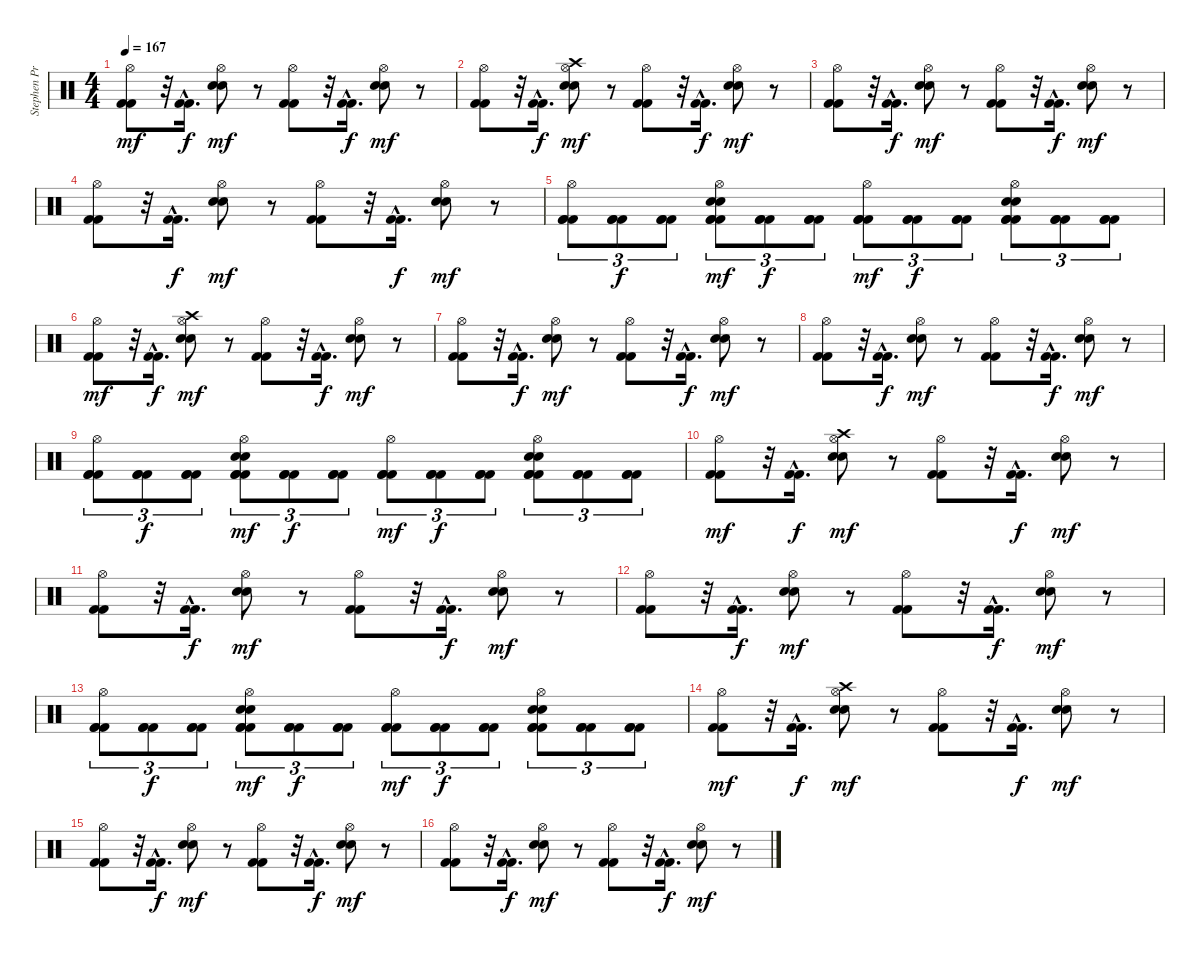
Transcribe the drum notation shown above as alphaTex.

\track ("Stephen Priestly  (Drums)" "Stephen Pr") {instrument percussion}
\staff {score}
\articulation defaults
\ts (4 4)
\tempo 167
\clef neutral
\ks c
("Hi-Hat (open)" "Kick (hit) 2" "Kick (hit) 2").8{dy mf} r.32 ("Kick (hit) 2"{hac} "Kick (hit) 2"{hac}).16{d dy f} ("Hi-Hat (open)" "Electric Snare (hit)" "Electric Snare (hit)").8{dy mf} r.8 ("Hi-Hat (open)" "Kick (hit) 2" "Kick (hit) 2").8 r.32 ("Kick (hit) 2"{hac} "Kick (hit) 2"{hac}).16{d dy f} ("Hi-Hat (open)" "Electric Snare (hit)" "Electric Snare (hit)").8{dy mf} r.8 |
("Hi-Hat (open)" "Kick (hit) 2" "Kick (hit) 2").8 r.32 ("Kick (hit) 2"{hac} "Kick (hit) 2"{hac}).16{d dy f} ("Crash high (hit)" "Hi-Hat (open)" "Electric Snare (hit)" "Electric Snare (hit)").8{dy mf} r.8 ("Hi-Hat (open)" "Kick (hit) 2" "Kick (hit) 2").8 r.32 ("Kick (hit) 2"{hac} "Kick (hit) 2"{hac}).16{d dy f} ("Hi-Hat (open)" "Electric Snare (hit)" "Electric Snare (hit)").8{dy mf} r.8 |
("Hi-Hat (open)" "Kick (hit) 2" "Kick (hit) 2").8 r.32 ("Kick (hit) 2"{hac} "Kick (hit) 2"{hac}).16{d dy f} ("Hi-Hat (open)" "Electric Snare (hit)" "Electric Snare (hit)").8{dy mf} r.8 ("Hi-Hat (open)" "Kick (hit) 2" "Kick (hit) 2").8 r.32 ("Kick (hit) 2"{hac} "Kick (hit) 2"{hac}).16{d dy f} ("Hi-Hat (open)" "Electric Snare (hit)" "Electric Snare (hit)").8{dy mf} r.8 |
("Hi-Hat (open)" "Kick (hit) 2" "Kick (hit) 2").8 r.32 ("Kick (hit) 2"{hac} "Kick (hit) 2"{hac}).16{d dy f} ("Hi-Hat (open)" "Electric Snare (hit)" "Electric Snare (hit)").8{dy mf} r.8 ("Hi-Hat (open)" "Kick (hit) 2" "Kick (hit) 2").8 r.32 ("Kick (hit) 2"{hac} "Kick (hit) 2"{hac}).16{d dy f} ("Hi-Hat (open)" "Electric Snare (hit)" "Electric Snare (hit)").8{dy mf} r.8 |
("Hi-Hat (open)" "Kick (hit) 2" "Kick (hit) 2" "Kick (hit) 2").8{tu (3 2)} ("Kick (hit) 2" "Kick (hit) 2" "Kick (hit) 2").8{tu (3 2) dy f} ("Kick (hit) 2" "Kick (hit) 2" "Kick (hit) 2").8{tu (3 2)} ("Electric Snare (hit)" "Hi-Hat (open)" "Electric Snare (hit)" "Kick (hit) 2" "Kick (hit) 2" "Kick (hit) 2").8{tu (3 2) dy mf} ("Kick (hit) 2" "Kick (hit) 2" "Kick (hit) 2").8{tu (3 2) dy f} ("Kick (hit) 2" "Kick (hit) 2" "Kick (hit) 2").8{tu (3 2)} ("Hi-Hat (open)" "Kick (hit) 2" "Kick (hit) 2" "Kick (hit) 2").8{tu (3 2) dy mf} ("Kick (hit) 2" "Kick (hit) 2" "Kick (hit) 2").8{tu (3 2) dy f} ("Kick (hit) 2" "Kick (hit) 2" "Kick (hit) 2").8{tu (3 2)} ("Electric Snare (hit)" "Hi-Hat (open)" "Electric Snare (hit)" "Kick (hit) 2" "Kick (hit) 2" "Kick (hit) 2").8{tu (3 2)} ("Kick (hit) 2" "Kick (hit) 2" "Kick (hit) 2").8{tu (3 2)} ("Kick (hit) 2" "Kick (hit) 2" "Kick (hit) 2").8{tu (3 2)} |
("Hi-Hat (open)" "Kick (hit) 2" "Kick (hit) 2").8{dy mf} r.32 ("Kick (hit) 2"{hac} "Kick (hit) 2"{hac}).16{d dy f} ("Crash high (hit)" "Hi-Hat (open)" "Electric Snare (hit)" "Electric Snare (hit)").8{dy mf} r.8 ("Hi-Hat (open)" "Kick (hit) 2" "Kick (hit) 2").8 r.32 ("Kick (hit) 2"{hac} "Kick (hit) 2"{hac}).16{d dy f} ("Hi-Hat (open)" "Electric Snare (hit)" "Electric Snare (hit)").8{dy mf} r.8 |
("Hi-Hat (open)" "Kick (hit) 2" "Kick (hit) 2").8 r.32 ("Kick (hit) 2"{hac} "Kick (hit) 2"{hac}).16{d dy f} ("Hi-Hat (open)" "Electric Snare (hit)" "Electric Snare (hit)").8{dy mf} r.8 ("Hi-Hat (open)" "Kick (hit) 2" "Kick (hit) 2").8 r.32 ("Kick (hit) 2"{hac} "Kick (hit) 2"{hac}).16{d dy f} ("Hi-Hat (open)" "Electric Snare (hit)" "Electric Snare (hit)").8{dy mf} r.8 |
("Hi-Hat (open)" "Kick (hit) 2" "Kick (hit) 2").8 r.32 ("Kick (hit) 2"{hac} "Kick (hit) 2"{hac}).16{d dy f} ("Hi-Hat (open)" "Electric Snare (hit)" "Electric Snare (hit)").8{dy mf} r.8 ("Hi-Hat (open)" "Kick (hit) 2" "Kick (hit) 2").8 r.32 ("Kick (hit) 2"{hac} "Kick (hit) 2"{hac}).16{d dy f} ("Hi-Hat (open)" "Electric Snare (hit)" "Electric Snare (hit)").8{dy mf} r.8 |
("Hi-Hat (open)" "Kick (hit) 2" "Kick (hit) 2" "Kick (hit) 2").8{tu (3 2)} ("Kick (hit) 2" "Kick (hit) 2" "Kick (hit) 2").8{tu (3 2) dy f} ("Kick (hit) 2" "Kick (hit) 2" "Kick (hit) 2").8{tu (3 2)} ("Electric Snare (hit)" "Hi-Hat (open)" "Electric Snare (hit)" "Kick (hit) 2" "Kick (hit) 2" "Kick (hit) 2").8{tu (3 2) dy mf} ("Kick (hit) 2" "Kick (hit) 2" "Kick (hit) 2").8{tu (3 2) dy f} ("Kick (hit) 2" "Kick (hit) 2" "Kick (hit) 2").8{tu (3 2)} ("Hi-Hat (open)" "Kick (hit) 2" "Kick (hit) 2" "Kick (hit) 2").8{tu (3 2) dy mf} ("Kick (hit) 2" "Kick (hit) 2" "Kick (hit) 2").8{tu (3 2) dy f} ("Kick (hit) 2" "Kick (hit) 2" "Kick (hit) 2").8{tu (3 2)} ("Electric Snare (hit)" "Hi-Hat (open)" "Electric Snare (hit)" "Kick (hit) 2" "Kick (hit) 2" "Kick (hit) 2").8{tu (3 2)} ("Kick (hit) 2" "Kick (hit) 2" "Kick (hit) 2").8{tu (3 2)} ("Kick (hit) 2" "Kick (hit) 2" "Kick (hit) 2").8{tu (3 2)} |
("Hi-Hat (open)" "Kick (hit) 2" "Kick (hit) 2").8{dy mf} r.32 ("Kick (hit) 2"{hac} "Kick (hit) 2"{hac}).16{d dy f} ("Crash high (hit)" "Hi-Hat (open)" "Electric Snare (hit)" "Electric Snare (hit)").8{dy mf} r.8 ("Hi-Hat (open)" "Kick (hit) 2" "Kick (hit) 2").8 r.32 ("Kick (hit) 2"{hac} "Kick (hit) 2"{hac}).16{d dy f} ("Hi-Hat (open)" "Electric Snare (hit)" "Electric Snare (hit)").8{dy mf} r.8 |
("Hi-Hat (open)" "Kick (hit) 2" "Kick (hit) 2").8 r.32 ("Kick (hit) 2"{hac} "Kick (hit) 2"{hac}).16{d dy f} ("Hi-Hat (open)" "Electric Snare (hit)" "Electric Snare (hit)").8{dy mf} r.8 ("Hi-Hat (open)" "Kick (hit) 2" "Kick (hit) 2").8 r.32 ("Kick (hit) 2"{hac} "Kick (hit) 2"{hac}).16{d dy f} ("Hi-Hat (open)" "Electric Snare (hit)" "Electric Snare (hit)").8{dy mf} r.8 |
("Hi-Hat (open)" "Kick (hit) 2" "Kick (hit) 2").8 r.32 ("Kick (hit) 2"{hac} "Kick (hit) 2"{hac}).16{d dy f} ("Hi-Hat (open)" "Electric Snare (hit)" "Electric Snare (hit)").8{dy mf} r.8 ("Hi-Hat (open)" "Kick (hit) 2" "Kick (hit) 2").8 r.32 ("Kick (hit) 2"{hac} "Kick (hit) 2"{hac}).16{d dy f} ("Hi-Hat (open)" "Electric Snare (hit)" "Electric Snare (hit)").8{dy mf} r.8 |
("Hi-Hat (open)" "Kick (hit) 2" "Kick (hit) 2" "Kick (hit) 2").8{tu (3 2)} ("Kick (hit) 2" "Kick (hit) 2" "Kick (hit) 2").8{tu (3 2) dy f} ("Kick (hit) 2" "Kick (hit) 2" "Kick (hit) 2").8{tu (3 2)} ("Electric Snare (hit)" "Hi-Hat (open)" "Electric Snare (hit)" "Kick (hit) 2" "Kick (hit) 2" "Kick (hit) 2").8{tu (3 2) dy mf} ("Kick (hit) 2" "Kick (hit) 2" "Kick (hit) 2").8{tu (3 2) dy f} ("Kick (hit) 2" "Kick (hit) 2" "Kick (hit) 2").8{tu (3 2)} ("Hi-Hat (open)" "Kick (hit) 2" "Kick (hit) 2" "Kick (hit) 2").8{tu (3 2) dy mf} ("Kick (hit) 2" "Kick (hit) 2" "Kick (hit) 2").8{tu (3 2) dy f} ("Kick (hit) 2" "Kick (hit) 2" "Kick (hit) 2").8{tu (3 2)} ("Electric Snare (hit)" "Hi-Hat (open)" "Electric Snare (hit)" "Kick (hit) 2" "Kick (hit) 2" "Kick (hit) 2").8{tu (3 2)} ("Kick (hit) 2" "Kick (hit) 2" "Kick (hit) 2").8{tu (3 2)} ("Kick (hit) 2" "Kick (hit) 2" "Kick (hit) 2").8{tu (3 2)} |
("Hi-Hat (open)" "Kick (hit) 2" "Kick (hit) 2").8{dy mf} r.32 ("Kick (hit) 2"{hac} "Kick (hit) 2"{hac}).16{d dy f} ("Crash high (hit)" "Hi-Hat (open)" "Electric Snare (hit)" "Electric Snare (hit)").8{dy mf} r.8 ("Hi-Hat (open)" "Kick (hit) 2" "Kick (hit) 2").8 r.32 ("Kick (hit) 2"{hac} "Kick (hit) 2"{hac}).16{d dy f} ("Hi-Hat (open)" "Electric Snare (hit)" "Electric Snare (hit)").8{dy mf} r.8 |
("Hi-Hat (open)" "Kick (hit) 2" "Kick (hit) 2").8 r.32 ("Kick (hit) 2"{hac} "Kick (hit) 2"{hac}).16{d dy f} ("Hi-Hat (open)" "Electric Snare (hit)" "Electric Snare (hit)").8{dy mf} r.8 ("Hi-Hat (open)" "Kick (hit) 2" "Kick (hit) 2").8 r.32 ("Kick (hit) 2"{hac} "Kick (hit) 2"{hac}).16{d dy f} ("Hi-Hat (open)" "Electric Snare (hit)" "Electric Snare (hit)").8{dy mf} r.8 |
("Hi-Hat (open)" "Kick (hit) 2" "Kick (hit) 2").8 r.32 ("Kick (hit) 2"{hac} "Kick (hit) 2"{hac}).16{d dy f} ("Hi-Hat (open)" "Electric Snare (hit)" "Electric Snare (hit)").8{dy mf} r.8 ("Hi-Hat (open)" "Kick (hit) 2" "Kick (hit) 2").8 r.32 ("Kick (hit) 2"{hac} "Kick (hit) 2"{hac}).16{d dy f} ("Hi-Hat (open)" "Electric Snare (hit)" "Electric Snare (hit)").8{dy mf} r.8
